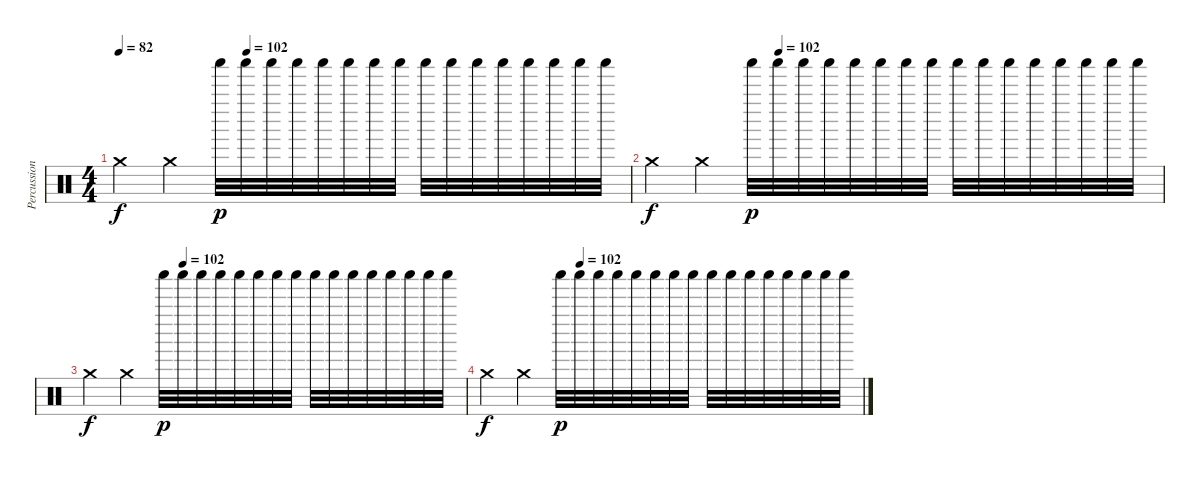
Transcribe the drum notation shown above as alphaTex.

\track ("Percussion" "Percussion") {instrument percussion}
\staff
\articulation defaults
\ts (4 4)
\tempo 82
\tempo (102 0.25)
\clef neutral
\ks c "Crash medium (hit)".4{dy f} "Crash medium (hit)".4 "Shaker (hit)".32{dy p} "Shaker (hit)".32 "Shaker (hit)".32 "Shaker (hit)".32 "Shaker (hit)".32 "Shaker (hit)".32 "Shaker (hit)".32 "Shaker (hit)".32 "Shaker (hit)".32 "Shaker (hit)".32 "Shaker (hit)".32 "Shaker (hit)".32 "Shaker (hit)".32 "Shaker (hit)".32 "Shaker (hit)".32 "Shaker (hit)".32
|
\tempo (102 0.25)
"Crash medium (hit)".4{dy f} "Crash medium (hit)".4 "Shaker (hit)".32{dy p} "Shaker (hit)".32 "Shaker (hit)".32 "Shaker (hit)".32 "Shaker (hit)".32 "Shaker (hit)".32 "Shaker (hit)".32 "Shaker (hit)".32 "Shaker (hit)".32 "Shaker (hit)".32 "Shaker (hit)".32 "Shaker (hit)".32 "Shaker (hit)".32 "Shaker (hit)".32 "Shaker (hit)".32 "Shaker (hit)".32 |
\tempo (102 0.25)
"Crash medium (hit)".4{dy f} "Crash medium (hit)".4 "Shaker (hit)".32{dy p} "Shaker (hit)".32 "Shaker (hit)".32 "Shaker (hit)".32 "Shaker (hit)".32 "Shaker (hit)".32 "Shaker (hit)".32 "Shaker (hit)".32 "Shaker (hit)".32 "Shaker (hit)".32 "Shaker (hit)".32 "Shaker (hit)".32 "Shaker (hit)".32 "Shaker (hit)".32 "Shaker (hit)".32 "Shaker (hit)".32 |
\tempo (102 0.25)
"Crash medium (hit)".4{dy f} "Crash medium (hit)".4 "Shaker (hit)".32{dy p} "Shaker (hit)".32 "Shaker (hit)".32 "Shaker (hit)".32 "Shaker (hit)".32 "Shaker (hit)".32 "Shaker (hit)".32 "Shaker (hit)".32 "Shaker (hit)".32 "Shaker (hit)".32 "Shaker (hit)".32 "Shaker (hit)".32 "Shaker (hit)".32 "Shaker (hit)".32 "Shaker (hit)".32 "Shaker (hit)".32
